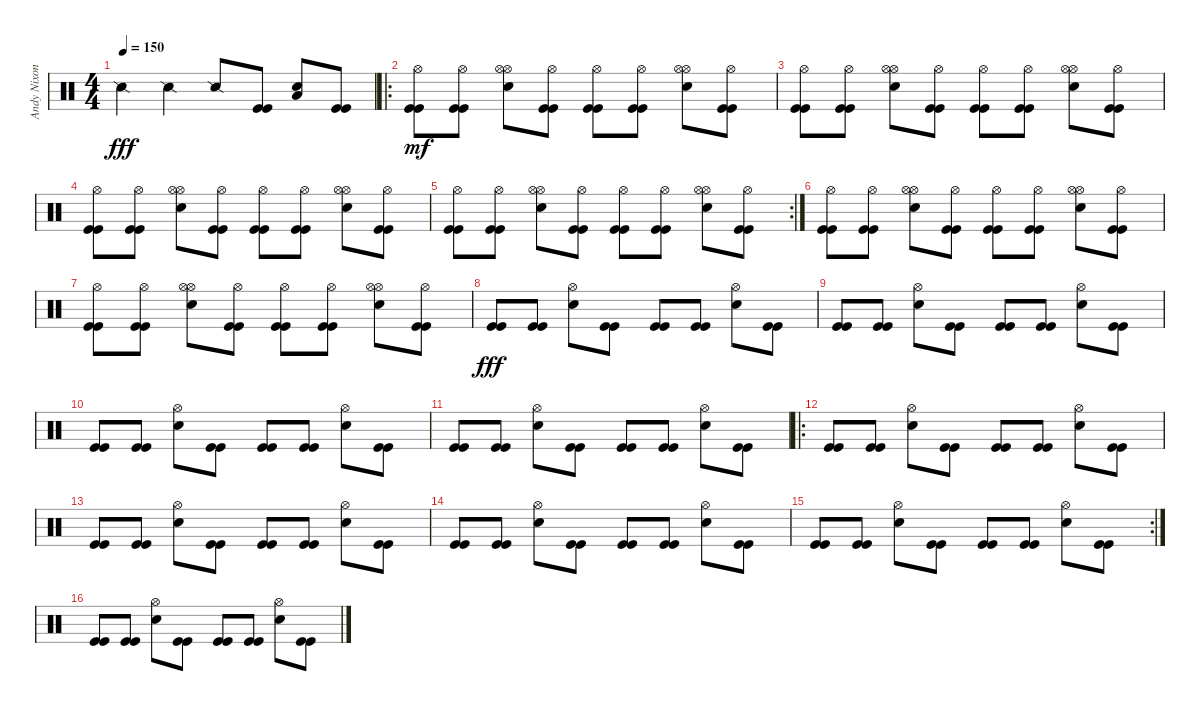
\track ("Andy Nixon (drums)" "Andy Nixon") {instrument percussion}
\staff {score}
\articulation defaults
\ts (4 4)
\tempo 150
\clef neutral
\ks c "Snare (side stick) 2".4{dy fff} "Snare (side stick) 2".4 "Snare (side stick) 2".8
("Kick (hit)" "Kick (hit)").8 ("Snare (hit) 2" "Low Floor Tom (hit)").8 ("Kick (hit)" "Kick (hit)").8 |
\ro
("Kick (hit)" "Kick (hit)" "Hi-Hat (open)").8{dy mf} ("Kick (hit)" "Kick (hit)" "Hi-Hat (open)").8 ("Snare (hit) 2" "Hi-Hat (open)" "Hi-Hat (open)").8 ("Kick (hit)" "Kick (hit)" "Hi-Hat (open)").8 ("Kick (hit)" "Kick (hit)" "Hi-Hat (open)").8 ("Kick (hit)" "Kick (hit)" "Hi-Hat (open)").8 ("Snare (hit) 2" "Hi-Hat (open)" "Hi-Hat (open)").8 ("Kick (hit)" "Kick (hit)" "Hi-Hat (open)").8 |
("Kick (hit)" "Kick (hit)" "Hi-Hat (open)").8 ("Kick (hit)" "Kick (hit)" "Hi-Hat (open)").8 ("Snare (hit) 2" "Hi-Hat (open)" "Hi-Hat (open)").8 ("Kick (hit)" "Kick (hit)" "Hi-Hat (open)").8 ("Kick (hit)" "Kick (hit)" "Hi-Hat (open)").8 ("Kick (hit)" "Kick (hit)" "Hi-Hat (open)").8 ("Snare (hit) 2" "Hi-Hat (open)" "Hi-Hat (open)").8 ("Kick (hit)" "Kick (hit)" "Hi-Hat (open)").8 |
("Kick (hit)" "Kick (hit)" "Hi-Hat (open)").8 ("Kick (hit)" "Kick (hit)" "Hi-Hat (open)").8 ("Snare (hit) 2" "Hi-Hat (open)" "Hi-Hat (open)").8 ("Kick (hit)" "Kick (hit)" "Hi-Hat (open)").8 ("Kick (hit)" "Kick (hit)" "Hi-Hat (open)").8 ("Kick (hit)" "Kick (hit)" "Hi-Hat (open)").8 ("Snare (hit) 2" "Hi-Hat (open)" "Hi-Hat (open)").8 ("Kick (hit)" "Kick (hit)" "Hi-Hat (open)").8 |
\rc 2
("Kick (hit)" "Kick (hit)" "Hi-Hat (open)").8 ("Kick (hit)" "Kick (hit)" "Hi-Hat (open)").8 ("Snare (hit) 2" "Hi-Hat (open)" "Hi-Hat (open)").8 ("Kick (hit)" "Kick (hit)" "Hi-Hat (open)").8 ("Kick (hit)" "Kick (hit)" "Hi-Hat (open)").8 ("Kick (hit)" "Kick (hit)" "Hi-Hat (open)").8 ("Snare (hit) 2" "Hi-Hat (open)" "Hi-Hat (open)").8 ("Kick (hit)" "Kick (hit)" "Hi-Hat (open)").8 |
("Kick (hit)" "Kick (hit)" "Hi-Hat (open)").8 ("Kick (hit)" "Kick (hit)" "Hi-Hat (open)").8 ("Snare (hit) 2" "Hi-Hat (open)" "Hi-Hat (open)").8 ("Kick (hit)" "Kick (hit)" "Hi-Hat (open)").8 ("Kick (hit)" "Kick (hit)" "Hi-Hat (open)").8 ("Kick (hit)" "Kick (hit)" "Hi-Hat (open)").8 ("Snare (hit) 2" "Hi-Hat (open)" "Hi-Hat (open)").8 ("Kick (hit)" "Kick (hit)" "Hi-Hat (open)").8 |
("Kick (hit)" "Kick (hit)" "Hi-Hat (open)").8 ("Kick (hit)" "Kick (hit)" "Hi-Hat (open)").8 ("Snare (hit) 2" "Hi-Hat (open)" "Hi-Hat (open)").8 ("Kick (hit)" "Kick (hit)" "Hi-Hat (open)").8 ("Kick (hit)" "Kick (hit)" "Hi-Hat (open)").8 ("Kick (hit)" "Kick (hit)" "Hi-Hat (open)").8 ("Snare (hit) 2" "Hi-Hat (open)" "Hi-Hat (open)").8 ("Kick (hit)" "Kick (hit)" "Hi-Hat (open)").8 |
("Kick (hit)" "Kick (hit)").8{dy fff} ("Kick (hit)" "Kick (hit)").8 ("Snare (hit) 2" "Hi-Hat (open)").8 ("Kick (hit)" "Kick (hit)").8 ("Kick (hit)" "Kick (hit)").8 ("Kick (hit)" "Kick (hit)").8 ("Snare (hit) 2" "Hi-Hat (open)").8 ("Kick (hit)" "Kick (hit)").8 |
("Kick (hit)" "Kick (hit)").8 ("Kick (hit)" "Kick (hit)").8 ("Snare (hit) 2" "Hi-Hat (open)").8 ("Kick (hit)" "Kick (hit)").8 ("Kick (hit)" "Kick (hit)").8 ("Kick (hit)" "Kick (hit)").8 ("Snare (hit) 2" "Hi-Hat (open)").8 ("Kick (hit)" "Kick (hit)").8 |
("Kick (hit)" "Kick (hit)").8 ("Kick (hit)" "Kick (hit)").8 ("Snare (hit) 2" "Hi-Hat (open)").8 ("Kick (hit)" "Kick (hit)").8 ("Kick (hit)" "Kick (hit)").8 ("Kick (hit)" "Kick (hit)").8 ("Snare (hit) 2" "Hi-Hat (open)").8 ("Kick (hit)" "Kick (hit)").8 |
("Kick (hit)" "Kick (hit)").8 ("Kick (hit)" "Kick (hit)").8 ("Snare (hit) 2" "Hi-Hat (open)").8 ("Kick (hit)" "Kick (hit)").8 ("Kick (hit)" "Kick (hit)").8 ("Kick (hit)" "Kick (hit)").8 ("Snare (hit) 2" "Hi-Hat (open)").8 ("Kick (hit)" "Kick (hit)").8 |
\ro
("Kick (hit)" "Kick (hit)").8 ("Kick (hit)" "Kick (hit)").8 ("Snare (hit) 2" "Hi-Hat (open)").8 ("Kick (hit)" "Kick (hit)").8 ("Kick (hit)" "Kick (hit)").8 ("Kick (hit)" "Kick (hit)").8 ("Snare (hit) 2" "Hi-Hat (open)").8 ("Kick (hit)" "Kick (hit)").8 |
("Kick (hit)" "Kick (hit)").8 ("Kick (hit)" "Kick (hit)").8 ("Snare (hit) 2" "Hi-Hat (open)").8 ("Kick (hit)" "Kick (hit)").8 ("Kick (hit)" "Kick (hit)").8 ("Kick (hit)" "Kick (hit)").8 ("Snare (hit) 2" "Hi-Hat (open)").8 ("Kick (hit)" "Kick (hit)").8 |
("Kick (hit)" "Kick (hit)").8 ("Kick (hit)" "Kick (hit)").8 ("Snare (hit) 2" "Hi-Hat (open)").8 ("Kick (hit)" "Kick (hit)").8 ("Kick (hit)" "Kick (hit)").8 ("Kick (hit)" "Kick (hit)").8 ("Snare (hit) 2" "Hi-Hat (open)").8 ("Kick (hit)" "Kick (hit)").8 |
\rc 2
("Kick (hit)" "Kick (hit)").8 ("Kick (hit)" "Kick (hit)").8 ("Snare (hit) 2" "Hi-Hat (open)").8 ("Kick (hit)" "Kick (hit)").8 ("Kick (hit)" "Kick (hit)").8 ("Kick (hit)" "Kick (hit)").8 ("Snare (hit) 2" "Hi-Hat (open)").8 ("Kick (hit)" "Kick (hit)").8 |
("Kick (hit)" "Kick (hit)").8 ("Kick (hit)" "Kick (hit)").8 ("Snare (hit) 2" "Hi-Hat (open)").8 ("Kick (hit)" "Kick (hit)").8 ("Kick (hit)" "Kick (hit)").8 ("Kick (hit)" "Kick (hit)").8 ("Snare (hit) 2" "Hi-Hat (open)").8 ("Kick (hit)" "Kick (hit)").8
